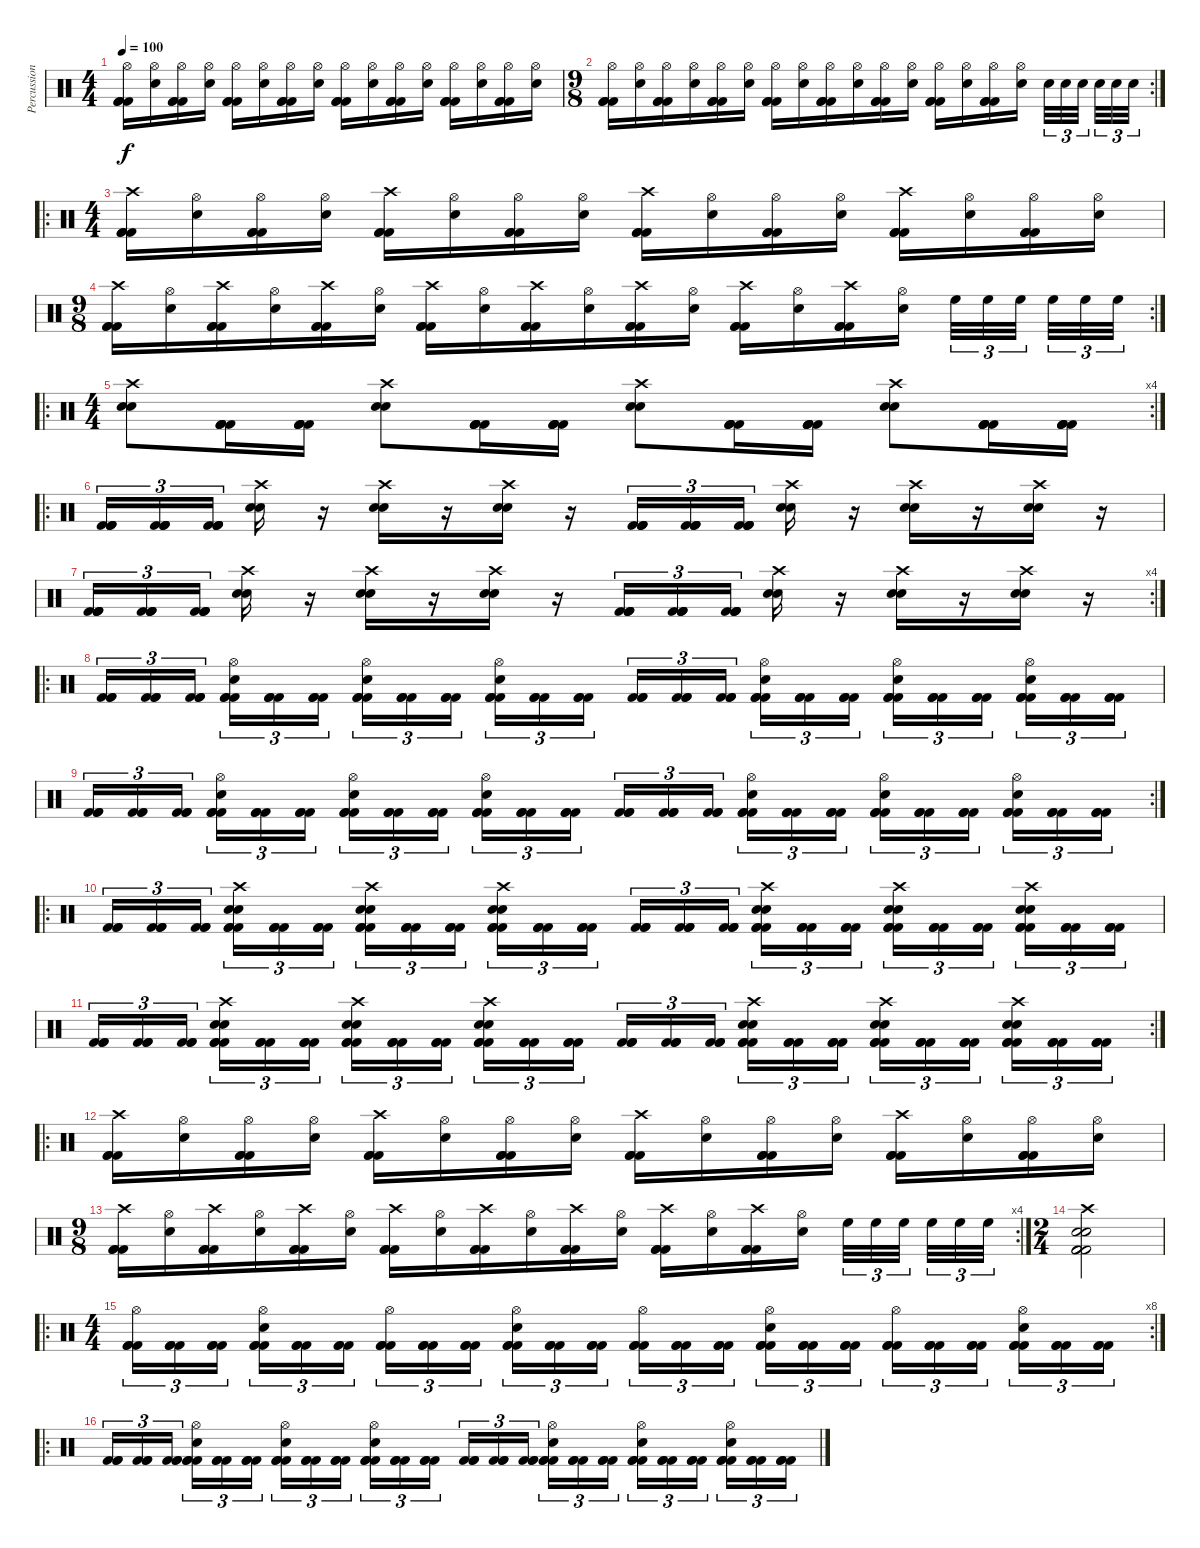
\track ("Percussion" "Percussion") {instrument percussion}
\staff {score}
\articulation defaults
\ts (4 4)
\tempo 100
\clef neutral
\ks c
("Hi-Hat (open)" "Kick (hit) 2" "Kick (hit) 2" "Kick (hit) 2").16{dy f} ("Hi-Hat (open)" "Snare (hit) 2").16 ("Hi-Hat (open)" "Kick (hit) 2" "Kick (hit) 2" "Kick (hit) 2").16 ("Hi-Hat (open)" "Snare (hit) 2").16 ("Hi-Hat (open)" "Kick (hit) 2" "Kick (hit) 2" "Kick (hit) 2").16 ("Hi-Hat (open)" "Snare (hit) 2").16 ("Hi-Hat (open)" "Kick (hit) 2" "Kick (hit) 2" "Kick (hit) 2").16 ("Hi-Hat (open)" "Snare (hit) 2").16 ("Hi-Hat (open)" "Kick (hit) 2" "Kick (hit) 2" "Kick (hit) 2").16 ("Hi-Hat (open)" "Snare (hit) 2").16 ("Hi-Hat (open)" "Kick (hit) 2" "Kick (hit) 2" "Kick (hit) 2").16 ("Hi-Hat (open)" "Snare (hit) 2").16 ("Hi-Hat (open)" "Kick (hit) 2" "Kick (hit) 2" "Kick (hit) 2").16 ("Hi-Hat (open)" "Snare (hit) 2").16 ("Hi-Hat (open)" "Kick (hit) 2" "Kick (hit) 2" "Kick (hit) 2").16 ("Hi-Hat (open)" "Snare (hit) 2").16 |
\rc 2
\ts (9 8)
("Hi-Hat (open)" "Kick (hit) 2" "Kick (hit) 2" "Kick (hit) 2").16 ("Hi-Hat (open)" "Snare (hit) 2").16 ("Hi-Hat (open)" "Kick (hit) 2" "Kick (hit) 2" "Kick (hit) 2").16 ("Hi-Hat (open)" "Snare (hit) 2").16 ("Hi-Hat (open)" "Kick (hit) 2" "Kick (hit) 2" "Kick (hit) 2").16 ("Hi-Hat (open)" "Snare (hit) 2").16 ("Hi-Hat (open)" "Kick (hit) 2" "Kick (hit) 2" "Kick (hit) 2").16 ("Hi-Hat (open)" "Snare (hit) 2").16 ("Hi-Hat (open)" "Kick (hit) 2" "Kick (hit) 2" "Kick (hit) 2").16 ("Hi-Hat (open)" "Snare (hit) 2").16 ("Hi-Hat (open)" "Kick (hit) 2" "Kick (hit) 2" "Kick (hit) 2").16 ("Hi-Hat (open)" "Snare (hit) 2").16 ("Hi-Hat (open)" "Kick (hit) 2" "Kick (hit) 2" "Kick (hit) 2").16 ("Hi-Hat (open)" "Snare (hit) 2").16 ("Hi-Hat (open)" "Kick (hit) 2" "Kick (hit) 2" "Kick (hit) 2").16 ("Hi-Hat (open)" "Snare (hit) 2").16 "Snare (hit) 2".32{tu (3 2)} "Snare (hit) 2".32{tu (3 2)} "Snare (hit) 2".32{tu (3 2)} "Snare (hit) 2".32{tu (3 2)} "Snare (hit) 2".32{tu (3 2)} "Snare (hit) 2".32{tu (3 2)} |
\ro
\ts (4 4)
("Crash high (hit)" "Kick (hit) 2" "Kick (hit) 2" "Kick (hit) 2").16 ("Hi-Hat (open)" "Snare (hit) 2").16 ("Hi-Hat (open)" "Kick (hit) 2" "Kick (hit) 2" "Kick (hit) 2").16 ("Hi-Hat (open)" "Snare (hit) 2").16 ("Crash high (hit)" "Kick (hit) 2" "Kick (hit) 2" "Kick (hit) 2").16 ("Hi-Hat (open)" "Snare (hit) 2").16 ("Hi-Hat (open)" "Kick (hit) 2" "Kick (hit) 2" "Kick (hit) 2").16 ("Hi-Hat (open)" "Snare (hit) 2").16 ("Crash high (hit)" "Kick (hit) 2" "Kick (hit) 2" "Kick (hit) 2").16 ("Hi-Hat (open)" "Snare (hit) 2").16 ("Hi-Hat (open)" "Kick (hit) 2" "Kick (hit) 2" "Kick (hit) 2").16 ("Hi-Hat (open)" "Snare (hit) 2").16 ("Crash high (hit)" "Kick (hit) 2" "Kick (hit) 2" "Kick (hit) 2").16 ("Hi-Hat (open)" "Snare (hit) 2").16 ("Hi-Hat (open)" "Kick (hit) 2" "Kick (hit) 2" "Kick (hit) 2").16 ("Hi-Hat (open)" "Snare (hit) 2").16 |
\rc 2
\ts (9 8)
("Crash high (hit)" "Kick (hit) 2" "Kick (hit) 2" "Kick (hit) 2").16 ("Hi-Hat (open)" "Snare (hit) 2").16 ("Crash high (hit)" "Kick (hit) 2" "Kick (hit) 2" "Kick (hit) 2").16 ("Hi-Hat (open)" "Snare (hit) 2").16 ("Crash high (hit)" "Kick (hit) 2" "Kick (hit) 2" "Kick (hit) 2").16 ("Hi-Hat (open)" "Snare (hit) 2").16 ("Crash high (hit)" "Kick (hit) 2" "Kick (hit) 2" "Kick (hit) 2").16 ("Hi-Hat (open)" "Snare (hit) 2").16 ("Crash high (hit)" "Kick (hit) 2" "Kick (hit) 2" "Kick (hit) 2").16 ("Hi-Hat (open)" "Snare (hit) 2").16 ("Crash high (hit)" "Kick (hit) 2" "Kick (hit) 2" "Kick (hit) 2").16 ("Hi-Hat (open)" "Snare (hit) 2").16 ("Crash high (hit)" "Kick (hit) 2" "Kick (hit) 2" "Kick (hit) 2").16 ("Hi-Hat (open)" "Snare (hit) 2").16 ("Crash high (hit)" "Kick (hit) 2" "Kick (hit) 2" "Kick (hit) 2").16 ("Hi-Hat (open)" "Snare (hit) 2").16 "High Floor Tom (hit)".32{tu (3 2)} "High Floor Tom (hit)".32{tu (3 2)} "High Floor Tom (hit)".32{tu (3 2)} "High Floor Tom (hit)".32{tu (3 2)} "High Floor Tom (hit)".32{tu (3 2)} "High Floor Tom (hit)".32{tu (3 2)} |
\ro
\rc 4
\ts (4 4)
("Crash high (hit)" "Snare (hit) 2" "Snare (hit) 2").8 ("Kick (hit) 2" "Kick (hit) 2" "Kick (hit) 2" "Kick (hit) 2").16 ("Kick (hit) 2" "Kick (hit) 2" "Kick (hit) 2" "Kick (hit) 2").16 ("Crash high (hit)" "Snare (hit) 2" "Snare (hit) 2").8 ("Kick (hit) 2" "Kick (hit) 2" "Kick (hit) 2" "Kick (hit) 2").16 ("Kick (hit) 2" "Kick (hit) 2" "Kick (hit) 2" "Kick (hit) 2").16 ("Crash high (hit)" "Snare (hit) 2" "Snare (hit) 2").8 ("Kick (hit) 2" "Kick (hit) 2" "Kick (hit) 2" "Kick (hit) 2").16 ("Kick (hit) 2" "Kick (hit) 2" "Kick (hit) 2" "Kick (hit) 2").16 ("Crash high (hit)" "Snare (hit) 2" "Snare (hit) 2").8 ("Kick (hit) 2" "Kick (hit) 2" "Kick (hit) 2" "Kick (hit) 2").16 ("Kick (hit) 2" "Kick (hit) 2" "Kick (hit) 2" "Kick (hit) 2").16 |
\ro
("Kick (hit) 2" "Kick (hit) 2" "Kick (hit) 2" "Kick (hit) 2").16{tu (3 2)} ("Kick (hit) 2" "Kick (hit) 2" "Kick (hit) 2" "Kick (hit) 2").16{tu (3 2)} ("Kick (hit) 2" "Kick (hit) 2" "Kick (hit) 2" "Kick (hit) 2").16{tu (3 2)} ("Crash high (hit)" "Snare (hit) 2" "Snare (hit) 2").16 r.16 ("Crash high (hit)" "Snare (hit) 2" "Snare (hit) 2").16 r.16 ("Crash high (hit)" "Snare (hit) 2" "Snare (hit) 2").16 r.16 ("Kick (hit) 2" "Kick (hit) 2" "Kick (hit) 2" "Kick (hit) 2").16{tu (3 2)} ("Kick (hit) 2" "Kick (hit) 2" "Kick (hit) 2" "Kick (hit) 2").16{tu (3 2)} ("Kick (hit) 2" "Kick (hit) 2" "Kick (hit) 2" "Kick (hit) 2").16{tu (3 2)} ("Crash high (hit)" "Snare (hit) 2" "Snare (hit) 2").16 r.16 ("Crash high (hit)" "Snare (hit) 2" "Snare (hit) 2").16 r.16 ("Crash high (hit)" "Snare (hit) 2" "Snare (hit) 2").16 r.16 |
\rc 4
("Kick (hit) 2" "Kick (hit) 2" "Kick (hit) 2" "Kick (hit) 2").16{tu (3 2)} ("Kick (hit) 2" "Kick (hit) 2" "Kick (hit) 2" "Kick (hit) 2").16{tu (3 2)} ("Kick (hit) 2" "Kick (hit) 2" "Kick (hit) 2" "Kick (hit) 2").16{tu (3 2)} ("Crash high (hit)" "Snare (hit) 2" "Snare (hit) 2").16 r.16 ("Crash high (hit)" "Snare (hit) 2" "Snare (hit) 2").16 r.16 ("Crash high (hit)" "Snare (hit) 2" "Snare (hit) 2").16 r.16 ("Kick (hit) 2" "Kick (hit) 2" "Kick (hit) 2" "Kick (hit) 2").16{tu (3 2)} ("Kick (hit) 2" "Kick (hit) 2" "Kick (hit) 2" "Kick (hit) 2").16{tu (3 2)} ("Kick (hit) 2" "Kick (hit) 2" "Kick (hit) 2" "Kick (hit) 2").16{tu (3 2)} ("Crash high (hit)" "Snare (hit) 2" "Snare (hit) 2").16 r.16 ("Crash high (hit)" "Snare (hit) 2" "Snare (hit) 2").16 r.16 ("Crash high (hit)" "Snare (hit) 2" "Snare (hit) 2").16 r.16 |
\ro
("Kick (hit) 2" "Kick (hit) 2" "Kick (hit) 2").16{tu (3 2)} ("Kick (hit) 2" "Kick (hit) 2" "Kick (hit) 2").16{tu (3 2)} ("Kick (hit) 2" "Kick (hit) 2" "Kick (hit) 2").16{tu (3 2)} ("Kick (hit) 2" "Kick (hit) 2" "Kick (hit) 2" "Hi-Hat (open)" "Snare (hit) 2").16{tu (3 2)} ("Kick (hit) 2" "Kick (hit) 2" "Kick (hit) 2").16{tu (3 2)} ("Kick (hit) 2" "Kick (hit) 2" "Kick (hit) 2").16{tu (3 2)} ("Kick (hit) 2" "Kick (hit) 2" "Kick (hit) 2" "Hi-Hat (open)" "Snare (hit) 2").16{tu (3 2)} ("Kick (hit) 2" "Kick (hit) 2" "Kick (hit) 2").16{tu (3 2)} ("Kick (hit) 2" "Kick (hit) 2" "Kick (hit) 2").16{tu (3 2)} ("Kick (hit) 2" "Kick (hit) 2" "Kick (hit) 2" "Hi-Hat (open)" "Snare (hit) 2").16{tu (3 2)} ("Kick (hit) 2" "Kick (hit) 2" "Kick (hit) 2").16{tu (3 2)} ("Kick (hit) 2" "Kick (hit) 2" "Kick (hit) 2").16{tu (3 2)} ("Kick (hit) 2" "Kick (hit) 2" "Kick (hit) 2").16{tu (3 2)} ("Kick (hit) 2" "Kick (hit) 2" "Kick (hit) 2").16{tu (3 2)} ("Kick (hit) 2" "Kick (hit) 2" "Kick (hit) 2").16{tu (3 2)} ("Kick (hit) 2" "Kick (hit) 2" "Kick (hit) 2" "Hi-Hat (open)" "Snare (hit) 2").16{tu (3 2)} ("Kick (hit) 2" "Kick (hit) 2" "Kick (hit) 2").16{tu (3 2)} ("Kick (hit) 2" "Kick (hit) 2" "Kick (hit) 2").16{tu (3 2)} ("Kick (hit) 2" "Kick (hit) 2" "Kick (hit) 2" "Hi-Hat (open)" "Snare (hit) 2").16{tu (3 2)} ("Kick (hit) 2" "Kick (hit) 2" "Kick (hit) 2").16{tu (3 2)} ("Kick (hit) 2" "Kick (hit) 2" "Kick (hit) 2").16{tu (3 2)} ("Kick (hit) 2" "Kick (hit) 2" "Kick (hit) 2" "Hi-Hat (open)" "Snare (hit) 2").16{tu (3 2)} ("Kick (hit) 2" "Kick (hit) 2" "Kick (hit) 2").16{tu (3 2)} ("Kick (hit) 2" "Kick (hit) 2" "Kick (hit) 2").16{tu (3 2)} |
\rc 2
("Kick (hit) 2" "Kick (hit) 2" "Kick (hit) 2").16{tu (3 2)} ("Kick (hit) 2" "Kick (hit) 2" "Kick (hit) 2").16{tu (3 2)} ("Kick (hit) 2" "Kick (hit) 2" "Kick (hit) 2").16{tu (3 2)} ("Kick (hit) 2" "Kick (hit) 2" "Kick (hit) 2" "Hi-Hat (open)" "Snare (hit) 2").16{tu (3 2)} ("Kick (hit) 2" "Kick (hit) 2" "Kick (hit) 2").16{tu (3 2)} ("Kick (hit) 2" "Kick (hit) 2" "Kick (hit) 2").16{tu (3 2)} ("Kick (hit) 2" "Kick (hit) 2" "Kick (hit) 2" "Hi-Hat (open)" "Snare (hit) 2").16{tu (3 2)} ("Kick (hit) 2" "Kick (hit) 2" "Kick (hit) 2").16{tu (3 2)} ("Kick (hit) 2" "Kick (hit) 2" "Kick (hit) 2").16{tu (3 2)} ("Kick (hit) 2" "Kick (hit) 2" "Kick (hit) 2" "Hi-Hat (open)" "Snare (hit) 2").16{tu (3 2)} ("Kick (hit) 2" "Kick (hit) 2" "Kick (hit) 2").16{tu (3 2)} ("Kick (hit) 2" "Kick (hit) 2" "Kick (hit) 2").16{tu (3 2)} ("Kick (hit) 2" "Kick (hit) 2" "Kick (hit) 2").16{tu (3 2)} ("Kick (hit) 2" "Kick (hit) 2" "Kick (hit) 2").16{tu (3 2)} ("Kick (hit) 2" "Kick (hit) 2" "Kick (hit) 2").16{tu (3 2)} ("Kick (hit) 2" "Kick (hit) 2" "Kick (hit) 2" "Hi-Hat (open)" "Snare (hit) 2").16{tu (3 2)} ("Kick (hit) 2" "Kick (hit) 2" "Kick (hit) 2").16{tu (3 2)} ("Kick (hit) 2" "Kick (hit) 2" "Kick (hit) 2").16{tu (3 2)} ("Kick (hit) 2" "Kick (hit) 2" "Kick (hit) 2" "Hi-Hat (open)" "Snare (hit) 2").16{tu (3 2)} ("Kick (hit) 2" "Kick (hit) 2" "Kick (hit) 2").16{tu (3 2)} ("Kick (hit) 2" "Kick (hit) 2" "Kick (hit) 2").16{tu (3 2)} ("Kick (hit) 2" "Kick (hit) 2" "Kick (hit) 2" "Hi-Hat (open)" "Snare (hit) 2").16{tu (3 2)} ("Kick (hit) 2" "Kick (hit) 2" "Kick (hit) 2").16{tu (3 2)} ("Kick (hit) 2" "Kick (hit) 2" "Kick (hit) 2").16{tu (3 2)} |
\ro
("Kick (hit) 2" "Kick (hit) 2" "Kick (hit) 2").16{tu (3 2)} ("Kick (hit) 2" "Kick (hit) 2" "Kick (hit) 2").16{tu (3 2)} ("Kick (hit) 2" "Kick (hit) 2" "Kick (hit) 2").16{tu (3 2)} ("Kick (hit) 2" "Kick (hit) 2" "Kick (hit) 2" "Crash high (hit)" "Snare (hit) 2" "Snare (hit) 2").16{tu (3 2)} ("Kick (hit) 2" "Kick (hit) 2" "Kick (hit) 2").16{tu (3 2)} ("Kick (hit) 2" "Kick (hit) 2" "Kick (hit) 2").16{tu (3 2)} ("Kick (hit) 2" "Kick (hit) 2" "Kick (hit) 2" "Crash high (hit)" "Snare (hit) 2" "Snare (hit) 2").16{tu (3 2)} ("Kick (hit) 2" "Kick (hit) 2" "Kick (hit) 2").16{tu (3 2)} ("Kick (hit) 2" "Kick (hit) 2" "Kick (hit) 2").16{tu (3 2)} ("Kick (hit) 2" "Kick (hit) 2" "Kick (hit) 2" "Crash high (hit)" "Snare (hit) 2" "Snare (hit) 2").16{tu (3 2)} ("Kick (hit) 2" "Kick (hit) 2" "Kick (hit) 2").16{tu (3 2)} ("Kick (hit) 2" "Kick (hit) 2" "Kick (hit) 2").16{tu (3 2)} ("Kick (hit) 2" "Kick (hit) 2" "Kick (hit) 2").16{tu (3 2)} ("Kick (hit) 2" "Kick (hit) 2" "Kick (hit) 2").16{tu (3 2)} ("Kick (hit) 2" "Kick (hit) 2" "Kick (hit) 2").16{tu (3 2)} ("Kick (hit) 2" "Kick (hit) 2" "Kick (hit) 2" "Crash high (hit)" "Snare (hit) 2" "Snare (hit) 2").16{tu (3 2)} ("Kick (hit) 2" "Kick (hit) 2" "Kick (hit) 2").16{tu (3 2)} ("Kick (hit) 2" "Kick (hit) 2" "Kick (hit) 2").16{tu (3 2)} ("Kick (hit) 2" "Kick (hit) 2" "Kick (hit) 2" "Crash high (hit)" "Snare (hit) 2" "Snare (hit) 2").16{tu (3 2)} ("Kick (hit) 2" "Kick (hit) 2" "Kick (hit) 2").16{tu (3 2)} ("Kick (hit) 2" "Kick (hit) 2" "Kick (hit) 2").16{tu (3 2)} ("Kick (hit) 2" "Kick (hit) 2" "Kick (hit) 2" "Crash high (hit)" "Snare (hit) 2" "Snare (hit) 2").16{tu (3 2)} ("Kick (hit) 2" "Kick (hit) 2" "Kick (hit) 2").16{tu (3 2)} ("Kick (hit) 2" "Kick (hit) 2" "Kick (hit) 2").16{tu (3 2)} |
\rc 2
("Kick (hit) 2" "Kick (hit) 2" "Kick (hit) 2").16{tu (3 2)} ("Kick (hit) 2" "Kick (hit) 2" "Kick (hit) 2").16{tu (3 2)} ("Kick (hit) 2" "Kick (hit) 2" "Kick (hit) 2").16{tu (3 2)} ("Kick (hit) 2" "Kick (hit) 2" "Kick (hit) 2" "Crash high (hit)" "Snare (hit) 2" "Snare (hit) 2").16{tu (3 2)} ("Kick (hit) 2" "Kick (hit) 2" "Kick (hit) 2").16{tu (3 2)} ("Kick (hit) 2" "Kick (hit) 2" "Kick (hit) 2").16{tu (3 2)} ("Kick (hit) 2" "Kick (hit) 2" "Kick (hit) 2" "Crash high (hit)" "Snare (hit) 2" "Snare (hit) 2").16{tu (3 2)} ("Kick (hit) 2" "Kick (hit) 2" "Kick (hit) 2").16{tu (3 2)} ("Kick (hit) 2" "Kick (hit) 2" "Kick (hit) 2").16{tu (3 2)} ("Kick (hit) 2" "Kick (hit) 2" "Kick (hit) 2" "Crash high (hit)" "Snare (hit) 2" "Snare (hit) 2").16{tu (3 2)} ("Kick (hit) 2" "Kick (hit) 2" "Kick (hit) 2").16{tu (3 2)} ("Kick (hit) 2" "Kick (hit) 2" "Kick (hit) 2").16{tu (3 2)} ("Kick (hit) 2" "Kick (hit) 2" "Kick (hit) 2").16{tu (3 2)} ("Kick (hit) 2" "Kick (hit) 2" "Kick (hit) 2").16{tu (3 2)} ("Kick (hit) 2" "Kick (hit) 2" "Kick (hit) 2").16{tu (3 2)} ("Kick (hit) 2" "Kick (hit) 2" "Kick (hit) 2" "Crash high (hit)" "Snare (hit) 2" "Snare (hit) 2").16{tu (3 2)} ("Kick (hit) 2" "Kick (hit) 2" "Kick (hit) 2").16{tu (3 2)} ("Kick (hit) 2" "Kick (hit) 2" "Kick (hit) 2").16{tu (3 2)} ("Kick (hit) 2" "Kick (hit) 2" "Kick (hit) 2" "Crash high (hit)" "Snare (hit) 2" "Snare (hit) 2").16{tu (3 2)} ("Kick (hit) 2" "Kick (hit) 2" "Kick (hit) 2").16{tu (3 2)} ("Kick (hit) 2" "Kick (hit) 2" "Kick (hit) 2").16{tu (3 2)} ("Kick (hit) 2" "Kick (hit) 2" "Kick (hit) 2" "Crash high (hit)" "Snare (hit) 2" "Snare (hit) 2").16{tu (3 2)} ("Kick (hit) 2" "Kick (hit) 2" "Kick (hit) 2").16{tu (3 2)} ("Kick (hit) 2" "Kick (hit) 2" "Kick (hit) 2").16{tu (3 2)} |
\ro
("Crash high (hit)" "Kick (hit) 2" "Kick (hit) 2" "Kick (hit) 2").16 ("Hi-Hat (open)" "Snare (hit) 2").16 ("Hi-Hat (open)" "Kick (hit) 2" "Kick (hit) 2" "Kick (hit) 2").16 ("Hi-Hat (open)" "Snare (hit) 2").16 ("Crash high (hit)" "Kick (hit) 2" "Kick (hit) 2" "Kick (hit) 2").16 ("Hi-Hat (open)" "Snare (hit) 2").16 ("Hi-Hat (open)" "Kick (hit) 2" "Kick (hit) 2" "Kick (hit) 2").16 ("Hi-Hat (open)" "Snare (hit) 2").16 ("Crash high (hit)" "Kick (hit) 2" "Kick (hit) 2" "Kick (hit) 2").16 ("Hi-Hat (open)" "Snare (hit) 2").16 ("Hi-Hat (open)" "Kick (hit) 2" "Kick (hit) 2" "Kick (hit) 2").16 ("Hi-Hat (open)" "Snare (hit) 2").16 ("Crash high (hit)" "Kick (hit) 2" "Kick (hit) 2" "Kick (hit) 2").16 ("Hi-Hat (open)" "Snare (hit) 2").16 ("Hi-Hat (open)" "Kick (hit) 2" "Kick (hit) 2" "Kick (hit) 2").16 ("Hi-Hat (open)" "Snare (hit) 2").16 |
\rc 4
\ts (9 8)
("Crash high (hit)" "Kick (hit) 2" "Kick (hit) 2" "Kick (hit) 2").16 ("Hi-Hat (open)" "Snare (hit) 2").16 ("Crash high (hit)" "Kick (hit) 2" "Kick (hit) 2" "Kick (hit) 2").16 ("Hi-Hat (open)" "Snare (hit) 2").16 ("Crash high (hit)" "Kick (hit) 2" "Kick (hit) 2" "Kick (hit) 2").16 ("Hi-Hat (open)" "Snare (hit) 2").16 ("Crash high (hit)" "Kick (hit) 2" "Kick (hit) 2" "Kick (hit) 2").16 ("Hi-Hat (open)" "Snare (hit) 2").16 ("Crash high (hit)" "Kick (hit) 2" "Kick (hit) 2" "Kick (hit) 2").16 ("Hi-Hat (open)" "Snare (hit) 2").16 ("Crash high (hit)" "Kick (hit) 2" "Kick (hit) 2" "Kick (hit) 2").16 ("Hi-Hat (open)" "Snare (hit) 2").16 ("Crash high (hit)" "Kick (hit) 2" "Kick (hit) 2" "Kick (hit) 2").16 ("Hi-Hat (open)" "Snare (hit) 2").16 ("Crash high (hit)" "Kick (hit) 2" "Kick (hit) 2" "Kick (hit) 2").16 ("Hi-Hat (open)" "Snare (hit) 2").16 "High Floor Tom (hit)".32{tu (3 2)} "High Floor Tom (hit)".32{tu (3 2)} "High Floor Tom (hit)".32{tu (3 2)} "High Floor Tom (hit)".32{tu (3 2)} "High Floor Tom (hit)".32{tu (3 2)} "High Floor Tom (hit)".32{tu (3 2)} |
\ts (2 4)
("Crash high (hit)" "Snare (hit) 2" "Snare (hit) 2" "Kick (hit) 2" "Kick (hit) 2" "Kick (hit) 2").2 |
\ro
\rc 8
\ts (4 4)
("Kick (hit) 2" "Kick (hit) 2" "Kick (hit) 2" "Hi-Hat (open)").16{tu (3 2)} ("Kick (hit) 2" "Kick (hit) 2" "Kick (hit) 2").16{tu (3 2)} ("Kick (hit) 2" "Kick (hit) 2" "Kick (hit) 2").16{tu (3 2)} ("Kick (hit) 2" "Kick (hit) 2" "Kick (hit) 2" "Hi-Hat (open)" "Snare (hit) 2").16{tu (3 2)} ("Kick (hit) 2" "Kick (hit) 2" "Kick (hit) 2").16{tu (3 2)} ("Kick (hit) 2" "Kick (hit) 2" "Kick (hit) 2").16{tu (3 2)} ("Kick (hit) 2" "Kick (hit) 2" "Kick (hit) 2" "Hi-Hat (open)").16{tu (3 2)} ("Kick (hit) 2" "Kick (hit) 2" "Kick (hit) 2").16{tu (3 2)} ("Kick (hit) 2" "Kick (hit) 2" "Kick (hit) 2").16{tu (3 2)} ("Kick (hit) 2" "Kick (hit) 2" "Kick (hit) 2" "Hi-Hat (open)" "Snare (hit) 2").16{tu (3 2)} ("Kick (hit) 2" "Kick (hit) 2" "Kick (hit) 2").16{tu (3 2)} ("Kick (hit) 2" "Kick (hit) 2" "Kick (hit) 2").16{tu (3 2)} ("Kick (hit) 2" "Kick (hit) 2" "Kick (hit) 2" "Hi-Hat (open)").16{tu (3 2)} ("Kick (hit) 2" "Kick (hit) 2" "Kick (hit) 2").16{tu (3 2)} ("Kick (hit) 2" "Kick (hit) 2" "Kick (hit) 2").16{tu (3 2)} ("Kick (hit) 2" "Kick (hit) 2" "Kick (hit) 2" "Hi-Hat (open)" "Snare (hit) 2").16{tu (3 2)} ("Kick (hit) 2" "Kick (hit) 2" "Kick (hit) 2").16{tu (3 2)} ("Kick (hit) 2" "Kick (hit) 2" "Kick (hit) 2").16{tu (3 2)} ("Kick (hit) 2" "Kick (hit) 2" "Kick (hit) 2" "Hi-Hat (open)").16{tu (3 2)} ("Kick (hit) 2" "Kick (hit) 2" "Kick (hit) 2").16{tu (3 2)} ("Kick (hit) 2" "Kick (hit) 2" "Kick (hit) 2").16{tu (3 2)} ("Kick (hit) 2" "Kick (hit) 2" "Kick (hit) 2" "Hi-Hat (open)" "Snare (hit) 2").16{tu (3 2)} ("Kick (hit) 2" "Kick (hit) 2" "Kick (hit) 2").16{tu (3 2)} ("Kick (hit) 2" "Kick (hit) 2" "Kick (hit) 2").16{tu (3 2)} |
\ro
("Kick (hit) 2" "Kick (hit) 2" "Kick (hit) 2").16{tu (3 2)} ("Kick (hit) 2" "Kick (hit) 2" "Kick (hit) 2").16{tu (3 2)} ("Kick (hit) 2" "Kick (hit) 2" "Kick (hit) 2").16{tu (3 2)} ("Kick (hit) 2" "Kick (hit) 2" "Kick (hit) 2" "Hi-Hat (open)" "Snare (hit) 2").16{tu (3 2)} ("Kick (hit) 2" "Kick (hit) 2" "Kick (hit) 2").16{tu (3 2)} ("Kick (hit) 2" "Kick (hit) 2" "Kick (hit) 2").16{tu (3 2)} ("Kick (hit) 2" "Kick (hit) 2" "Kick (hit) 2" "Hi-Hat (open)" "Snare (hit) 2").16{tu (3 2)} ("Kick (hit) 2" "Kick (hit) 2" "Kick (hit) 2").16{tu (3 2)} ("Kick (hit) 2" "Kick (hit) 2" "Kick (hit) 2").16{tu (3 2)} ("Kick (hit) 2" "Kick (hit) 2" "Kick (hit) 2" "Hi-Hat (open)" "Snare (hit) 2").16{tu (3 2)} ("Kick (hit) 2" "Kick (hit) 2" "Kick (hit) 2").16{tu (3 2)} ("Kick (hit) 2" "Kick (hit) 2" "Kick (hit) 2").16{tu (3 2)} ("Kick (hit) 2" "Kick (hit) 2" "Kick (hit) 2").16{tu (3 2)} ("Kick (hit) 2" "Kick (hit) 2" "Kick (hit) 2").16{tu (3 2)} ("Kick (hit) 2" "Kick (hit) 2" "Kick (hit) 2").16{tu (3 2)} ("Kick (hit) 2" "Kick (hit) 2" "Kick (hit) 2" "Hi-Hat (open)" "Snare (hit) 2").16{tu (3 2)} ("Kick (hit) 2" "Kick (hit) 2" "Kick (hit) 2").16{tu (3 2)} ("Kick (hit) 2" "Kick (hit) 2" "Kick (hit) 2").16{tu (3 2)} ("Kick (hit) 2" "Kick (hit) 2" "Kick (hit) 2" "Hi-Hat (open)" "Snare (hit) 2").16{tu (3 2)} ("Kick (hit) 2" "Kick (hit) 2" "Kick (hit) 2").16{tu (3 2)} ("Kick (hit) 2" "Kick (hit) 2" "Kick (hit) 2").16{tu (3 2)} ("Kick (hit) 2" "Kick (hit) 2" "Kick (hit) 2" "Hi-Hat (open)" "Snare (hit) 2").16{tu (3 2)} ("Kick (hit) 2" "Kick (hit) 2" "Kick (hit) 2").16{tu (3 2)} ("Kick (hit) 2" "Kick (hit) 2" "Kick (hit) 2").16{tu (3 2)}
